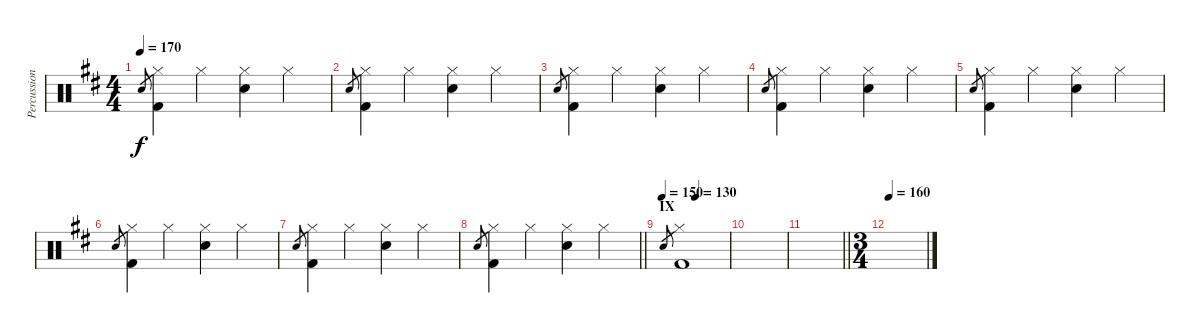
\track ("Percussion [Nick Mason]" "Percussion") {instrument percussion}
\staff {score}
\articulation defaults
\ts (4 4)
\tempo 170
\clef neutral
\ks d "Snare (hit) 2".8{gr dy f}
("Hi-Hat (closed)" "Kick (hit) 2").4 "Hi-Hat (closed)".4 ("Hi-Hat (closed)" "Snare (hit) 2").4 "Hi-Hat (closed)".4 |
"Snare (hit) 2".8{gr} ("Hi-Hat (closed)" "Kick (hit) 2").4 "Hi-Hat (closed)".4 ("Hi-Hat (closed)" "Snare (hit) 2").4 "Hi-Hat (closed)".4 |
"Snare (hit) 2".8{gr} ("Hi-Hat (closed)" "Kick (hit) 2").4 "Hi-Hat (closed)".4 ("Hi-Hat (closed)" "Snare (hit) 2").4 "Hi-Hat (closed)".4 |
"Snare (hit) 2".8{gr} ("Hi-Hat (closed)" "Kick (hit) 2").4 "Hi-Hat (closed)".4 ("Hi-Hat (closed)" "Snare (hit) 2").4 "Hi-Hat (closed)".4 |
"Snare (hit) 2".8{gr} ("Hi-Hat (closed)" "Kick (hit) 2").4 "Hi-Hat (closed)".4 ("Hi-Hat (closed)" "Snare (hit) 2").4 "Hi-Hat (closed)".4 |
"Snare (hit) 2".8{gr} ("Hi-Hat (closed)" "Kick (hit) 2").4 "Hi-Hat (closed)".4 ("Hi-Hat (closed)" "Snare (hit) 2").4 "Hi-Hat (closed)".4 |
"Snare (hit) 2".8{gr} ("Hi-Hat (closed)" "Kick (hit) 2").4 "Hi-Hat (closed)".4 ("Hi-Hat (closed)" "Snare (hit) 2").4 "Hi-Hat (closed)".4 |
\barLineRight lightlight "Snare (hit) 2".8{gr}
("Hi-Hat (closed)" "Kick (hit) 2").4 "Hi-Hat (closed)".4 ("Hi-Hat (closed)" "Snare (hit) 2").4 "Hi-Hat (closed)".4 |
\section ("" "IX")
\tempo 150
\tempo (130 0.5)
"Snare (hit) 2".8{gr} ("Hi-Hat (closed)" "Kick (hit) 2").1 |
|
\barLineRight lightlight
|
\ts (3 4)
\tempo 160
